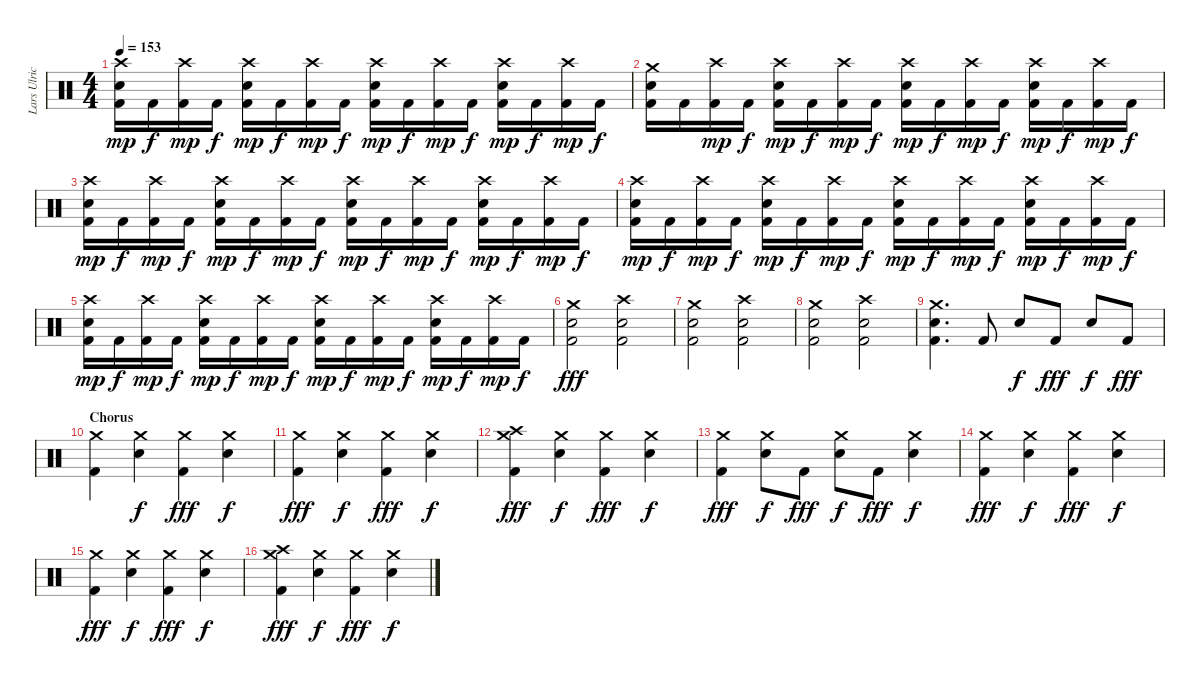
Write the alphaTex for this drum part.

\track ("Lars Ulrich (Drums)" "Lars Ulric") {instrument percussion}
\staff {score}
\articulation defaults
\ts (4 4)
\tempo 153
\clef neutral
\ks c
("Crash high (hit)" "Electric Snare (hit)" "Kick (hit) 2").16{dy mp} "Kick (hit) 2".16{dy f} ("Crash high (hit)" "Kick (hit) 2").16{dy mp} "Kick (hit) 2".16{dy f} ("Crash high (hit)" "Electric Snare (hit)" "Kick (hit) 2").16{dy mp} "Kick (hit) 2".16{dy f} ("Crash high (hit)" "Kick (hit) 2").16{dy mp} "Kick (hit) 2".16{dy f} ("Crash high (hit)" "Electric Snare (hit)" "Kick (hit) 2").16{dy mp} "Kick (hit) 2".16{dy f} ("Crash high (hit)" "Kick (hit) 2").16{dy mp} "Kick (hit) 2".16{dy f} ("Crash high (hit)" "Electric Snare (hit)" "Kick (hit) 2").16{dy mp} "Kick (hit) 2".16{dy f} ("Crash high (hit)" "Kick (hit) 2").16{dy mp} "Kick (hit) 2".16{dy f} |
("Crash medium (hit)" "Electric Snare (hit)" "Kick (hit) 2").16 "Kick (hit) 2".16 ("Crash high (hit)" "Kick (hit) 2").16{dy mp} "Kick (hit) 2".16{dy f} ("Crash high (hit)" "Electric Snare (hit)" "Kick (hit) 2").16{dy mp} "Kick (hit) 2".16{dy f} ("Crash high (hit)" "Kick (hit) 2").16{dy mp} "Kick (hit) 2".16{dy f} ("Crash high (hit)" "Electric Snare (hit)" "Kick (hit) 2").16{dy mp} "Kick (hit) 2".16{dy f} ("Crash high (hit)" "Kick (hit) 2").16{dy mp} "Kick (hit) 2".16{dy f} ("Crash high (hit)" "Electric Snare (hit)" "Kick (hit) 2").16{dy mp} "Kick (hit) 2".16{dy f} ("Crash high (hit)" "Kick (hit) 2").16{dy mp} "Kick (hit) 2".16{dy f} |
("Crash high (hit)" "Electric Snare (hit)" "Kick (hit) 2").16{dy mp} "Kick (hit) 2".16{dy f} ("Crash high (hit)" "Kick (hit) 2").16{dy mp} "Kick (hit) 2".16{dy f} ("Crash high (hit)" "Electric Snare (hit)" "Kick (hit) 2").16{dy mp} "Kick (hit) 2".16{dy f} ("Crash high (hit)" "Kick (hit) 2").16{dy mp} "Kick (hit) 2".16{dy f} ("Crash high (hit)" "Electric Snare (hit)" "Kick (hit) 2").16{dy mp} "Kick (hit) 2".16{dy f} ("Crash high (hit)" "Kick (hit) 2").16{dy mp} "Kick (hit) 2".16{dy f} ("Crash high (hit)" "Electric Snare (hit)" "Kick (hit) 2").16{dy mp} "Kick (hit) 2".16{dy f} ("Crash high (hit)" "Kick (hit) 2").16{dy mp} "Kick (hit) 2".16{dy f} |
("Crash high (hit)" "Electric Snare (hit)" "Kick (hit) 2").16{dy mp} "Kick (hit) 2".16{dy f} ("Crash high (hit)" "Kick (hit) 2").16{dy mp} "Kick (hit) 2".16{dy f} ("Crash high (hit)" "Electric Snare (hit)" "Kick (hit) 2").16{dy mp} "Kick (hit) 2".16{dy f} ("Crash high (hit)" "Kick (hit) 2").16{dy mp} "Kick (hit) 2".16{dy f} ("Crash high (hit)" "Electric Snare (hit)" "Kick (hit) 2").16{dy mp} "Kick (hit) 2".16{dy f} ("Crash high (hit)" "Kick (hit) 2").16{dy mp} "Kick (hit) 2".16{dy f} ("Crash high (hit)" "Electric Snare (hit)" "Kick (hit) 2").16{dy mp} "Kick (hit) 2".16{dy f} ("Crash high (hit)" "Kick (hit) 2").16{dy mp} "Kick (hit) 2".16{dy f} |
("Crash high (hit)" "Electric Snare (hit)" "Kick (hit) 2").16{dy mp} "Kick (hit) 2".16{dy f} ("Crash high (hit)" "Kick (hit) 2").16{dy mp} "Kick (hit) 2".16{dy f} ("Crash high (hit)" "Electric Snare (hit)" "Kick (hit) 2").16{dy mp} "Kick (hit) 2".16{dy f} ("Crash high (hit)" "Kick (hit) 2").16{dy mp} "Kick (hit) 2".16{dy f} ("Crash high (hit)" "Electric Snare (hit)" "Kick (hit) 2").16{dy mp} "Kick (hit) 2".16{dy f} ("Crash high (hit)" "Kick (hit) 2").16{dy mp} "Kick (hit) 2".16{dy f} ("Crash high (hit)" "Electric Snare (hit)" "Kick (hit) 2").16{dy mp} "Kick (hit) 2".16{dy f} ("Crash high (hit)" "Kick (hit) 2").16{dy mp} "Kick (hit) 2".16{dy f} |
("Crash medium (hit)" "Electric Snare (hit)" "Kick (hit) 2").2{dy fff} ("Crash high (hit)" "Electric Snare (hit)" "Kick (hit) 2").2 |
("Crash medium (hit)" "Electric Snare (hit)" "Kick (hit) 2").2 ("Crash high (hit)" "Electric Snare (hit)" "Kick (hit) 2").2 |
("Crash medium (hit)" "Electric Snare (hit)" "Kick (hit) 2").2 ("Crash high (hit)" "Electric Snare (hit)" "Kick (hit) 2").2 |
("Crash medium (hit)" "Electric Snare (hit)" "Kick (hit) 2").4{d} "Kick (hit) 2".8 "Electric Snare (hit)".8{dy f} "Kick (hit) 2".8{dy fff} "Electric Snare (hit)".8{dy f} "Kick (hit) 2".8{dy fff} |
\section ("" "Chorus")
("Crash medium (hit)" "Kick (hit) 2").4 ("Crash medium (hit)" "Electric Snare (hit)").4{dy f} ("Crash medium (hit)" "Kick (hit) 2").4{dy fff} ("Crash medium (hit)" "Electric Snare (hit)").4{dy f} |
("Crash medium (hit)" "Kick (hit) 2").4{dy fff} ("Crash medium (hit)" "Electric Snare (hit)").4{dy f} ("Crash medium (hit)" "Kick (hit) 2").4{dy fff} ("Crash medium (hit)" "Electric Snare (hit)").4{dy f} |
("Crash medium (hit)" "Crash high (hit)" "Kick (hit) 2").4{dy fff} ("Crash medium (hit)" "Electric Snare (hit)").4{dy f} ("Crash medium (hit)" "Kick (hit) 2").4{dy fff} ("Crash medium (hit)" "Electric Snare (hit)").4{dy f} |
("Crash medium (hit)" "Kick (hit) 2").4{dy fff} ("Crash medium (hit)" "Electric Snare (hit)").8{dy f} "Kick (hit) 2".8{dy fff} ("Crash medium (hit)" "Electric Snare (hit)").8{dy f} "Kick (hit) 2".8{dy fff} ("Crash medium (hit)" "Electric Snare (hit)").4{dy f} |
("Crash medium (hit)" "Kick (hit) 2").4{dy fff} ("Crash medium (hit)" "Electric Snare (hit)").4{dy f} ("Crash medium (hit)" "Kick (hit) 2").4{dy fff} ("Crash medium (hit)" "Electric Snare (hit)").4{dy f} |
("Crash medium (hit)" "Kick (hit) 2").4{dy fff} ("Crash medium (hit)" "Electric Snare (hit)").4{dy f} ("Crash medium (hit)" "Kick (hit) 2").4{dy fff} ("Crash medium (hit)" "Electric Snare (hit)").4{dy f} |
("Crash medium (hit)" "Crash high (hit)" "Kick (hit) 2").4{dy fff} ("Crash medium (hit)" "Electric Snare (hit)").4{dy f} ("Crash medium (hit)" "Kick (hit) 2").4{dy fff} ("Crash medium (hit)" "Electric Snare (hit)").4{dy f}
